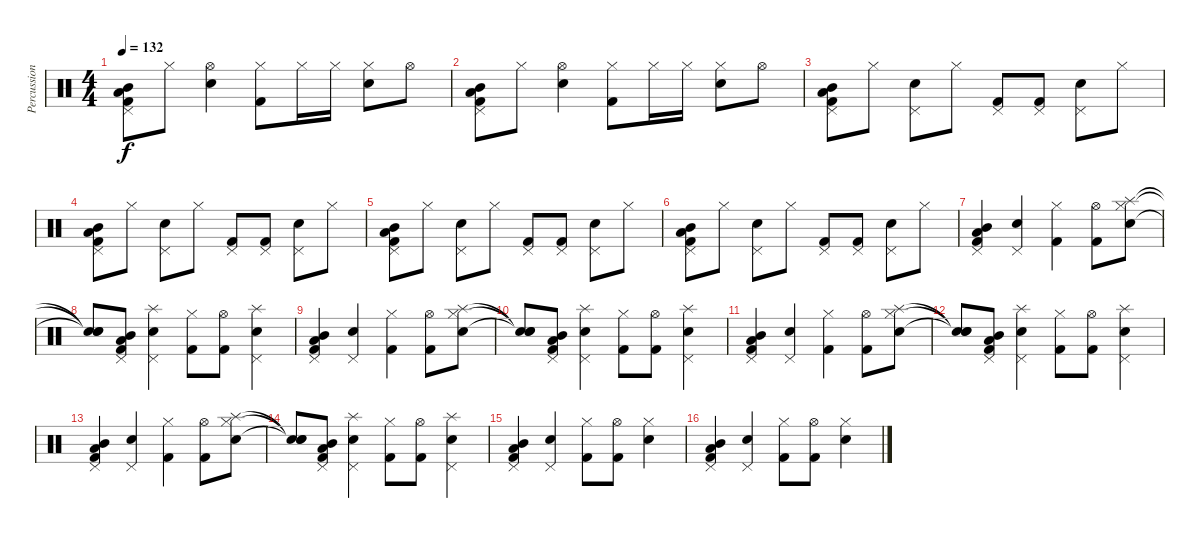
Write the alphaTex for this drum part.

\track ("Percussions" "Percussion") {instrument percussion}
\staff {score}
\articulation defaults
\ts (4 4)
\tempo 132
\clef neutral
\ks c
("Pedal Hi-Hat (hit)" "Mid Tom (hit)" "Low Tom (hit)" "Kick (hit) 2").8{dy f} "Hi-Hat (closed)".8 ("Hi-Hat (open)" "Snare (hit) 2").4 ("Hi-Hat (closed)" "Kick (hit) 2").8 "Hi-Hat (closed)".16 "Hi-Hat (closed)".16 ("Hi-Hat (closed)" "Snare (hit) 2").8 "Hi-Hat (open)".8 |
("Pedal Hi-Hat (hit)" "Mid Tom (hit)" "Low Tom (hit)" "Kick (hit) 2").8 "Hi-Hat (closed)".8 ("Hi-Hat (open)" "Snare (hit) 2").4 ("Hi-Hat (closed)" "Kick (hit) 2").8 "Hi-Hat (closed)".16 "Hi-Hat (closed)".16 ("Hi-Hat (closed)" "Snare (hit) 2").8 "Hi-Hat (open)".8 |
("Pedal Hi-Hat (hit)" "Mid Tom (hit)" "Low Tom (hit)" "Kick (hit) 2").8 "Hi-Hat (closed)".8 ("Pedal Hi-Hat (hit)" "Snare (hit) 2").8 "Hi-Hat (closed)".8 ("Pedal Hi-Hat (hit)" "Kick (hit) 2").8 ("Pedal Hi-Hat (hit)" "Kick (hit) 2").8 ("Pedal Hi-Hat (hit)" "Snare (hit) 2").8 "Hi-Hat (closed)".8 |
("Pedal Hi-Hat (hit)" "Mid Tom (hit)" "Low Tom (hit)" "Kick (hit) 2").8 "Hi-Hat (closed)".8 ("Pedal Hi-Hat (hit)" "Snare (hit) 2").8 "Hi-Hat (closed)".8 ("Pedal Hi-Hat (hit)" "Kick (hit) 2").8 ("Pedal Hi-Hat (hit)" "Kick (hit) 2").8 ("Pedal Hi-Hat (hit)" "Snare (hit) 2").8 "Hi-Hat (closed)".8 |
("Pedal Hi-Hat (hit)" "Mid Tom (hit)" "Low Tom (hit)" "Kick (hit) 2").8 "Hi-Hat (closed)".8 ("Pedal Hi-Hat (hit)" "Snare (hit) 2").8 "Hi-Hat (closed)".8 ("Pedal Hi-Hat (hit)" "Kick (hit) 2").8 ("Pedal Hi-Hat (hit)" "Kick (hit) 2").8 ("Pedal Hi-Hat (hit)" "Snare (hit) 2").8 "Hi-Hat (closed)".8 |
("Pedal Hi-Hat (hit)" "Mid Tom (hit)" "Low Tom (hit)" "Kick (hit) 2").8 "Hi-Hat (closed)".8 ("Pedal Hi-Hat (hit)" "Snare (hit) 2").8 "Hi-Hat (closed)".8 ("Pedal Hi-Hat (hit)" "Kick (hit) 2").8 ("Pedal Hi-Hat (hit)" "Kick (hit) 2").8 ("Pedal Hi-Hat (hit)" "Snare (hit) 2").8 "Hi-Hat (closed)".8 |
("Pedal Hi-Hat (hit)" "Mid Tom (hit)" "Low Tom (hit)" "Kick (hit) 2").4 ("Pedal Hi-Hat (hit)" "Snare (hit) 2").4 ("Hi-Hat (closed)" "Kick (hit) 2").4 ("Hi-Hat (open)" "Kick (hit) 2").8 ("Hi-Hat (closed)" "Splash (hit)" "Snare (hit) 2").8 |
("Snare (hit)"{t} "Snare (hit)"{t} "Snare (hit)"{t}).8 ("Pedal Hi-Hat (hit)" "Mid Tom (hit)" "Low Tom (hit)" "Kick (hit) 2").8 ("Pedal Hi-Hat (hit)" "Splash (hit)" "Snare (hit) 2").4 ("Hi-Hat (closed)" "Kick (hit) 2").8 ("Hi-Hat (open)" "Kick (hit) 2").8 ("Pedal Hi-Hat (hit)" "Splash (hit)" "Snare (hit) 2").4 |
("Pedal Hi-Hat (hit)" "Mid Tom (hit)" "Low Tom (hit)" "Kick (hit) 2").4 ("Pedal Hi-Hat (hit)" "Snare (hit) 2").4 ("Hi-Hat (closed)" "Kick (hit) 2").4 ("Hi-Hat (open)" "Kick (hit) 2").8 ("Hi-Hat (closed)" "Splash (hit)" "Snare (hit) 2").8 |
("Snare (hit)"{t} "Snare (hit)"{t} "Snare (hit)"{t}).8 ("Pedal Hi-Hat (hit)" "Mid Tom (hit)" "Low Tom (hit)" "Kick (hit) 2").8 ("Pedal Hi-Hat (hit)" "Splash (hit)" "Snare (hit) 2").4 ("Hi-Hat (closed)" "Kick (hit) 2").8 ("Hi-Hat (open)" "Kick (hit) 2").8 ("Pedal Hi-Hat (hit)" "Splash (hit)" "Snare (hit) 2").4 |
("Pedal Hi-Hat (hit)" "Mid Tom (hit)" "Low Tom (hit)" "Kick (hit) 2").4 ("Pedal Hi-Hat (hit)" "Snare (hit) 2").4 ("Hi-Hat (closed)" "Kick (hit) 2").4 ("Hi-Hat (open)" "Kick (hit) 2").8 ("Hi-Hat (closed)" "Splash (hit)" "Snare (hit) 2").8 |
("Snare (hit)"{t} "Snare (hit)"{t} "Snare (hit)"{t}).8 ("Pedal Hi-Hat (hit)" "Mid Tom (hit)" "Low Tom (hit)" "Kick (hit) 2").8 ("Pedal Hi-Hat (hit)" "Splash (hit)" "Snare (hit) 2").4 ("Hi-Hat (closed)" "Kick (hit) 2").8 ("Hi-Hat (open)" "Kick (hit) 2").8 ("Pedal Hi-Hat (hit)" "Splash (hit)" "Snare (hit) 2").4 |
("Pedal Hi-Hat (hit)" "Mid Tom (hit)" "Low Tom (hit)" "Kick (hit) 2").4 ("Pedal Hi-Hat (hit)" "Snare (hit) 2").4 ("Hi-Hat (closed)" "Kick (hit) 2").4 ("Hi-Hat (open)" "Kick (hit) 2").8 ("Hi-Hat (closed)" "Splash (hit)" "Snare (hit) 2").8 |
("Snare (hit)"{t} "Snare (hit)"{t} "Snare (hit)"{t}).8 ("Pedal Hi-Hat (hit)" "Mid Tom (hit)" "Low Tom (hit)" "Kick (hit) 2").8 ("Pedal Hi-Hat (hit)" "Splash (hit)" "Snare (hit) 2").4 ("Hi-Hat (closed)" "Kick (hit) 2").8 ("Hi-Hat (open)" "Kick (hit) 2").8 ("Pedal Hi-Hat (hit)" "Splash (hit)" "Snare (hit) 2").4 |
("Pedal Hi-Hat (hit)" "Mid Tom (hit)" "Low Tom (hit)" "Kick (hit) 2").4 ("Pedal Hi-Hat (hit)" "Snare (hit) 2").4 ("Hi-Hat (closed)" "Kick (hit) 2").8 ("Hi-Hat (open)" "Kick (hit) 2").8 ("Hi-Hat (closed)" "Snare (hit) 2").4 |
("Pedal Hi-Hat (hit)" "Mid Tom (hit)" "Low Tom (hit)" "Kick (hit) 2").4 ("Pedal Hi-Hat (hit)" "Snare (hit) 2").4 ("Hi-Hat (closed)" "Kick (hit) 2").8 ("Hi-Hat (open)" "Kick (hit) 2").8 ("Hi-Hat (closed)" "Snare (hit) 2").4
